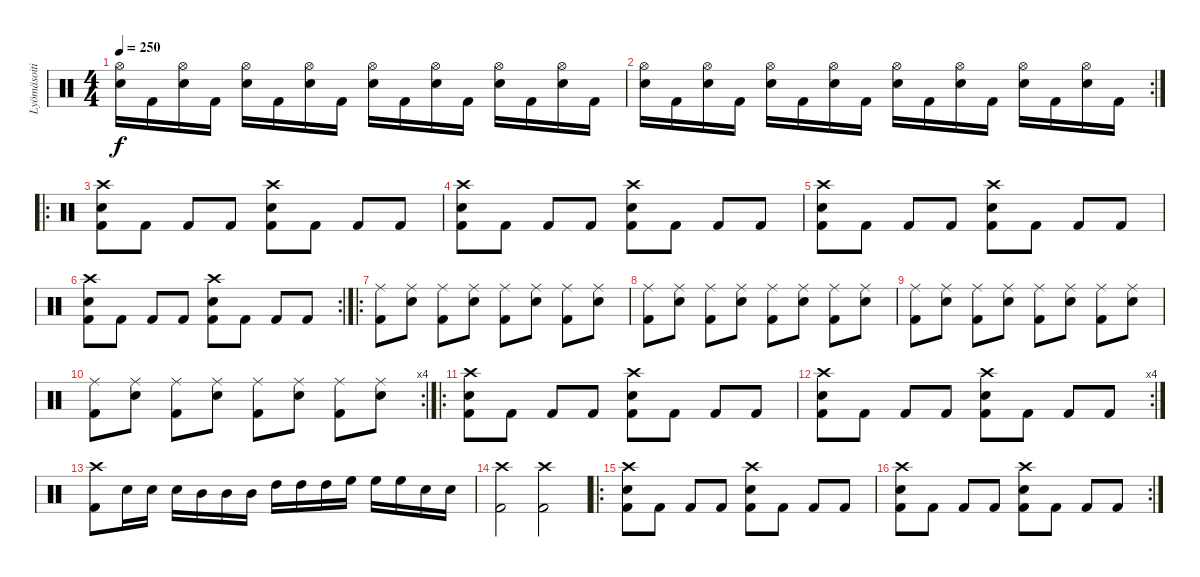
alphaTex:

\track ("Lyömäsoitin" "Lyömäsoiti") {instrument percussion}
\staff {score}
\articulation defaults
\ts (4 4)
\tempo 250
\clef neutral
\ks c
("Hi-Hat (open)" "Electric Snare (hit)").16{dy f} "Kick (hit) 2".16 ("Hi-Hat (open)" "Electric Snare (hit)").16 "Kick (hit) 2".16 ("Hi-Hat (open)" "Electric Snare (hit)").16 "Kick (hit) 2".16 ("Hi-Hat (open)" "Electric Snare (hit)").16 "Kick (hit) 2".16 ("Hi-Hat (open)" "Electric Snare (hit)").16 "Kick (hit) 2".16 ("Hi-Hat (open)" "Electric Snare (hit)").16 "Kick (hit) 2".16 ("Hi-Hat (open)" "Electric Snare (hit)").16 "Kick (hit) 2".16 ("Hi-Hat (open)" "Electric Snare (hit)").16 "Kick (hit) 2".16 |
\rc 2
("Hi-Hat (open)" "Electric Snare (hit)").16 "Kick (hit) 2".16 ("Hi-Hat (open)" "Electric Snare (hit)").16 "Kick (hit) 2".16 ("Hi-Hat (open)" "Electric Snare (hit)").16 "Kick (hit) 2".16 ("Hi-Hat (open)" "Electric Snare (hit)").16 "Kick (hit) 2".16 ("Hi-Hat (open)" "Electric Snare (hit)").16 "Kick (hit) 2".16 ("Hi-Hat (open)" "Electric Snare (hit)").16 "Kick (hit) 2".16 ("Hi-Hat (open)" "Electric Snare (hit)").16 "Kick (hit) 2".16 ("Hi-Hat (open)" "Electric Snare (hit)").16 "Kick (hit) 2".16 |
\ro
("Crash high (hit)" "Electric Snare (hit)" "Kick (hit) 2").8 "Kick (hit) 2".8 "Kick (hit) 2".8 "Kick (hit) 2".8 ("Crash high (hit)" "Electric Snare (hit)" "Kick (hit) 2").8 "Kick (hit) 2".8 "Kick (hit) 2".8 "Kick (hit) 2".8 |
("Crash high (hit)" "Electric Snare (hit)" "Kick (hit) 2").8 "Kick (hit) 2".8 "Kick (hit) 2".8 "Kick (hit) 2".8 ("Crash high (hit)" "Electric Snare (hit)" "Kick (hit) 2").8 "Kick (hit) 2".8 "Kick (hit) 2".8 "Kick (hit) 2".8 |
("Crash high (hit)" "Electric Snare (hit)" "Kick (hit) 2").8 "Kick (hit) 2".8 "Kick (hit) 2".8 "Kick (hit) 2".8 ("Crash high (hit)" "Electric Snare (hit)" "Kick (hit) 2").8 "Kick (hit) 2".8 "Kick (hit) 2".8 "Kick (hit) 2".8 |
\rc 2
("Crash high (hit)" "Electric Snare (hit)" "Kick (hit) 2").8 "Kick (hit) 2".8 "Kick (hit) 2".8 "Kick (hit) 2".8 ("Crash high (hit)" "Electric Snare (hit)" "Kick (hit) 2").8 "Kick (hit) 2".8 "Kick (hit) 2".8 "Kick (hit) 2".8 |
\ro
("Ride (middle)" "Kick (hit) 2").8 ("Ride (middle)" "Electric Snare (hit)").8 ("Ride (middle)" "Kick (hit) 2").8 ("Ride (middle)" "Electric Snare (hit)").8 ("Ride (middle)" "Kick (hit) 2").8 ("Ride (middle)" "Electric Snare (hit)").8 ("Ride (middle)" "Kick (hit) 2").8 ("Ride (middle)" "Electric Snare (hit)").8 |
("Ride (middle)" "Kick (hit) 2").8 ("Ride (middle)" "Electric Snare (hit)").8 ("Ride (middle)" "Kick (hit) 2").8 ("Ride (middle)" "Electric Snare (hit)").8 ("Ride (middle)" "Kick (hit) 2").8 ("Ride (middle)" "Electric Snare (hit)").8 ("Ride (middle)" "Kick (hit) 2").8 ("Ride (middle)" "Electric Snare (hit)").8 |
("Ride (middle)" "Kick (hit) 2").8 ("Ride (middle)" "Electric Snare (hit)").8 ("Ride (middle)" "Kick (hit) 2").8 ("Ride (middle)" "Electric Snare (hit)").8 ("Ride (middle)" "Kick (hit) 2").8 ("Ride (middle)" "Electric Snare (hit)").8 ("Ride (middle)" "Kick (hit) 2").8 ("Ride (middle)" "Electric Snare (hit)").8 |
\rc 4
("Ride (middle)" "Kick (hit) 2").8 ("Ride (middle)" "Electric Snare (hit)").8 ("Ride (middle)" "Kick (hit) 2").8 ("Ride (middle)" "Electric Snare (hit)").8 ("Ride (middle)" "Kick (hit) 2").8 ("Ride (middle)" "Electric Snare (hit)").8 ("Ride (middle)" "Kick (hit) 2").8 ("Ride (middle)" "Electric Snare (hit)").8 |
\ro
("Crash high (hit)" "Electric Snare (hit)" "Kick (hit) 2").8 "Kick (hit) 2".8 "Kick (hit) 2".8 "Kick (hit) 2".8 ("Crash high (hit)" "Electric Snare (hit)" "Kick (hit) 2").8 "Kick (hit) 2".8 "Kick (hit) 2".8 "Kick (hit) 2".8 |
\rc 4
("Crash high (hit)" "Electric Snare (hit)" "Kick (hit) 2").8 "Kick (hit) 2".8 "Kick (hit) 2".8 "Kick (hit) 2".8 ("Crash high (hit)" "Electric Snare (hit)" "Kick (hit) 2").8 "Kick (hit) 2".8 "Kick (hit) 2".8 "Kick (hit) 2".8 |
("Crash high (hit)" "Kick (hit) 2").8 "Electric Snare (hit)".16 "Electric Snare (hit)".16 "Electric Snare (hit)".16 "Mid Tom (hit)".16 "Mid Tom (hit)".16 "Mid Tom (hit)".16 "High Tom (hit)".16 "High Tom (hit)".16 "High Tom (hit)".16 "High Floor Tom (hit)".16 "High Floor Tom (hit)".16 "High Floor Tom (hit)".16 "Electric Snare (hit)".16 "Snare (hit)".16 |
("Crash high (hit)" "Kick (hit) 2").2 ("Crash high (hit)" "Kick (hit) 2").2 |
\ro
("Crash high (hit)" "Electric Snare (hit)" "Kick (hit) 2").8 "Kick (hit) 2".8 "Kick (hit) 2".8 "Kick (hit) 2".8 ("Crash high (hit)" "Electric Snare (hit)" "Kick (hit) 2").8 "Kick (hit) 2".8 "Kick (hit) 2".8 "Kick (hit) 2".8 |
\rc 2
("Crash high (hit)" "Electric Snare (hit)" "Kick (hit) 2").8 "Kick (hit) 2".8 "Kick (hit) 2".8 "Kick (hit) 2".8 ("Crash high (hit)" "Electric Snare (hit)" "Kick (hit) 2").8 "Kick (hit) 2".8 "Kick (hit) 2".8 "Kick (hit) 2".8
